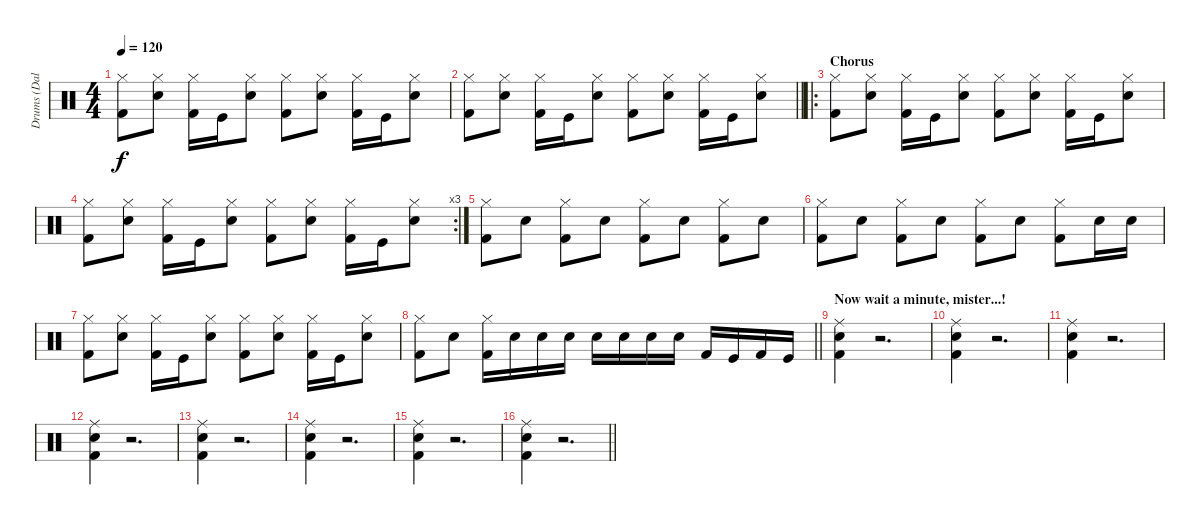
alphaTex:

\track ("Drums (Dalton Black)" "Drums (Dal") {instrument percussion}
\staff {score}
\articulation defaults
\ts (4 4)
\tempo 120
\clef neutral
\ks c
("Hi-Hat (closed)" "Kick (hit) 2").8{dy f} ("Hi-Hat (closed)" "Electric Snare (hit)").8 ("Hi-Hat (closed)" "Kick (hit) 2").16 "Kick (hit)".16 ("Hi-Hat (closed)" "Electric Snare (hit)").8 ("Hi-Hat (closed)" "Kick (hit) 2").8 ("Hi-Hat (closed)" "Electric Snare (hit)").8 ("Hi-Hat (closed)" "Kick (hit) 2").16 "Kick (hit)".16 ("Hi-Hat (closed)" "Electric Snare (hit)").8 |
\barLineRight lightlight
("Hi-Hat (closed)" "Kick (hit) 2").8 ("Hi-Hat (closed)" "Electric Snare (hit)").8 ("Hi-Hat (closed)" "Kick (hit) 2").16 "Kick (hit)".16 ("Hi-Hat (closed)" "Electric Snare (hit)").8 ("Hi-Hat (closed)" "Kick (hit) 2").8 ("Hi-Hat (closed)" "Electric Snare (hit)").8 ("Hi-Hat (closed)" "Kick (hit) 2").16 "Kick (hit)".16 ("Hi-Hat (closed)" "Electric Snare (hit)").8 |
\ro
\section ("" "Chorus")
("Hi-Hat (closed)" "Kick (hit) 2").8 ("Hi-Hat (closed)" "Electric Snare (hit)").8 ("Hi-Hat (closed)" "Kick (hit) 2").16 "Kick (hit)".16 ("Hi-Hat (closed)" "Electric Snare (hit)").8 ("Hi-Hat (closed)" "Kick (hit) 2").8 ("Hi-Hat (closed)" "Electric Snare (hit)").8 ("Hi-Hat (closed)" "Kick (hit) 2").16 "Kick (hit)".16 ("Hi-Hat (closed)" "Electric Snare (hit)").8 |
\rc 3
("Hi-Hat (closed)" "Kick (hit) 2").8 ("Hi-Hat (closed)" "Electric Snare (hit)").8 ("Hi-Hat (closed)" "Kick (hit) 2").16 "Kick (hit)".16 ("Hi-Hat (closed)" "Electric Snare (hit)").8 ("Hi-Hat (closed)" "Kick (hit) 2").8 ("Hi-Hat (closed)" "Electric Snare (hit)").8 ("Hi-Hat (closed)" "Kick (hit) 2").16 "Kick (hit)".16 ("Hi-Hat (closed)" "Electric Snare (hit)").8 |
("Hi-Hat (closed)" "Kick (hit) 2").8 "Electric Snare (hit)".8 ("Hi-Hat (closed)" "Kick (hit) 2").8 "Electric Snare (hit)".8 ("Hi-Hat (closed)" "Kick (hit) 2").8 "Electric Snare (hit)".8 ("Hi-Hat (closed)" "Kick (hit) 2").8 "Electric Snare (hit)".8 |
("Hi-Hat (closed)" "Kick (hit) 2").8 "Electric Snare (hit)".8 ("Hi-Hat (closed)" "Kick (hit) 2").8 "Electric Snare (hit)".8 ("Hi-Hat (closed)" "Kick (hit) 2").8 "Electric Snare (hit)".8 ("Hi-Hat (closed)" "Kick (hit) 2").8 "Electric Snare (hit)".16 "Electric Snare (hit)".16 |
("Hi-Hat (closed)" "Kick (hit) 2").8 ("Hi-Hat (closed)" "Electric Snare (hit)").8 ("Hi-Hat (closed)" "Kick (hit) 2").16 "Kick (hit)".16 ("Hi-Hat (closed)" "Electric Snare (hit)").8 ("Hi-Hat (closed)" "Kick (hit) 2").8 ("Hi-Hat (closed)" "Electric Snare (hit)").8 ("Hi-Hat (closed)" "Kick (hit) 2").16 "Kick (hit)".16 ("Hi-Hat (closed)" "Electric Snare (hit)").8 |
\barLineRight lightlight
("Hi-Hat (closed)" "Kick (hit) 2").8 "Electric Snare (hit)".8 ("Hi-Hat (closed)" "Kick (hit) 2").16 "Electric Snare (hit)".16 "Electric Snare (hit)".16 "Electric Snare (hit)".16 "Electric Snare (hit)".16 "Electric Snare (hit)".16 "Electric Snare (hit)".16 "Electric Snare (hit)".16 "Kick (hit) 2".16 "Kick (hit)".16 "Kick (hit) 2".16 "Kick (hit)".16 |
\section ("" "Now wait a minute, mister...!")
("Ride (middle)" "Electric Snare (hit)" "Kick (hit) 2").4 r.2{d} |
("Ride (middle)" "Electric Snare (hit)" "Kick (hit) 2").4 r.2{d} |
("Ride (middle)" "Electric Snare (hit)" "Kick (hit) 2").4 r.2{d} |
("Ride (middle)" "Electric Snare (hit)" "Kick (hit) 2").4 r.2{d} |
("Ride (middle)" "Electric Snare (hit)" "Kick (hit) 2").4 r.2{d} |
("Ride (middle)" "Electric Snare (hit)" "Kick (hit) 2").4 r.2{d} |
("Ride (middle)" "Electric Snare (hit)" "Kick (hit) 2").4 r.2{d} |
\barLineRight lightlight
("Ride (middle)" "Electric Snare (hit)" "Kick (hit) 2").4 r.2{d}
